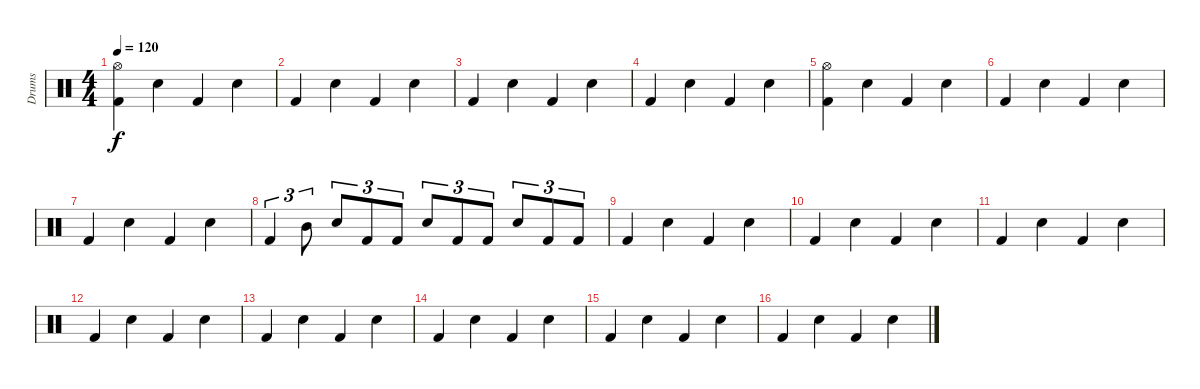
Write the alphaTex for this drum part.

\track ("Drums" "Drums") {instrument percussion}
\staff {score}
\articulation defaults
\ts (4 4)
\tempo 120
\clef neutral
\ks c
("Kick (hit) 2" "Hi-Hat (open)").4{dy f} "Electric Snare (hit)".4 "Kick (hit) 2".4 "Electric Snare (hit)".4 |
"Kick (hit) 2".4 "Electric Snare (hit)".4 "Kick (hit) 2".4 "Electric Snare (hit)".4 |
"Kick (hit) 2".4 "Electric Snare (hit)".4 "Kick (hit) 2".4 "Electric Snare (hit)".4 |
"Kick (hit) 2".4 "Electric Snare (hit)".4 "Kick (hit) 2".4 "Electric Snare (hit)".4 |
("Kick (hit) 2" "Hi-Hat (open)").4 "Electric Snare (hit)".4 "Kick (hit) 2".4 "Electric Snare (hit)".4 |
"Kick (hit) 2".4 "Electric Snare (hit)".4 "Kick (hit) 2".4 "Electric Snare (hit)".4 |
"Kick (hit) 2".4 "Electric Snare (hit)".4 "Kick (hit) 2".4 "Electric Snare (hit)".4 |
"Kick (hit) 2".4{tu (3 2)} "Mid Tom (hit)".8{tu (3 2)} "Electric Snare (hit)".8{tu (3 2)} "Kick (hit) 2".8{tu (3 2)} "Kick (hit) 2".8{tu (3 2)} "Electric Snare (hit)".8{tu (3 2)} "Kick (hit) 2".8{tu (3 2)} "Kick (hit) 2".8{tu (3 2)} "Electric Snare (hit)".8{tu (3 2)} "Kick (hit) 2".8{tu (3 2)} "Kick (hit) 2".8{tu (3 2)} |
"Kick (hit) 2".4 "Electric Snare (hit)".4 "Kick (hit) 2".4 "Electric Snare (hit)".4 |
"Kick (hit) 2".4 "Electric Snare (hit)".4 "Kick (hit) 2".4 "Electric Snare (hit)".4 |
"Kick (hit) 2".4 "Electric Snare (hit)".4 "Kick (hit) 2".4 "Electric Snare (hit)".4 |
"Kick (hit) 2".4 "Electric Snare (hit)".4 "Kick (hit) 2".4 "Electric Snare (hit)".4 |
"Kick (hit) 2".4 "Electric Snare (hit)".4 "Kick (hit) 2".4 "Electric Snare (hit)".4 |
"Kick (hit) 2".4 "Electric Snare (hit)".4 "Kick (hit) 2".4 "Electric Snare (hit)".4 |
"Kick (hit) 2".4 "Electric Snare (hit)".4 "Kick (hit) 2".4 "Electric Snare (hit)".4 |
"Kick (hit) 2".4 "Electric Snare (hit)".4 "Kick (hit) 2".4 "Electric Snare (hit)".4
